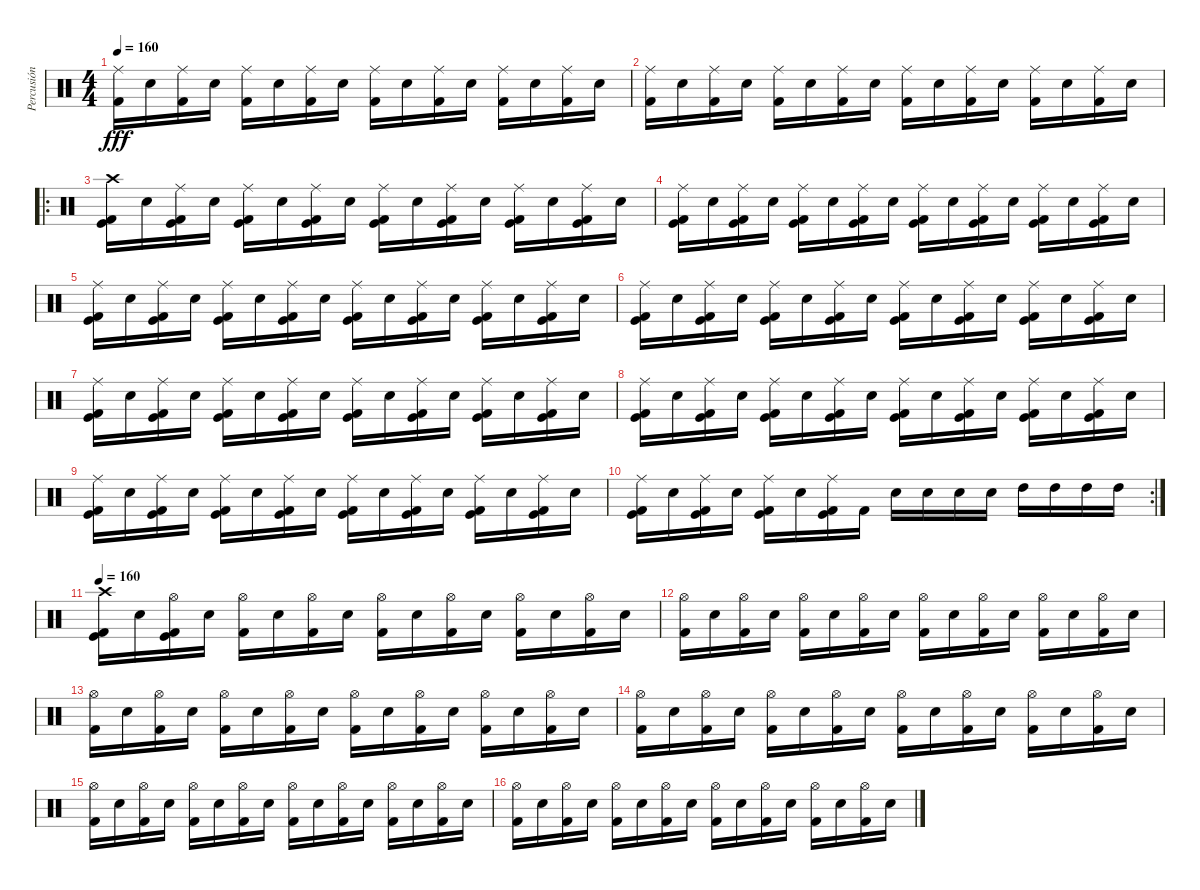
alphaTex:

\track ("Percusión" "Percusión") {instrument percussion}
\staff {score}
\articulation defaults
\ts (4 4)
\tempo 160
\clef neutral
\ks c
("Ride (middle)" "Kick (hit) 2").16{dy fff} "Electric Snare (hit)".16 ("Ride (middle)" "Kick (hit) 2").16 "Electric Snare (hit)".16 ("Ride (middle)" "Kick (hit) 2").16 "Electric Snare (hit)".16 ("Ride (middle)" "Kick (hit) 2").16 "Electric Snare (hit)".16 ("Ride (middle)" "Kick (hit) 2").16 "Electric Snare (hit)".16 ("Ride (middle)" "Kick (hit) 2").16 "Electric Snare (hit)".16 ("Ride (middle)" "Kick (hit) 2").16 "Electric Snare (hit)".16 ("Ride (middle)" "Kick (hit) 2").16 "Electric Snare (hit)".16 |
("Ride (middle)" "Kick (hit) 2").16 "Electric Snare (hit)".16 ("Ride (middle)" "Kick (hit) 2").16 "Electric Snare (hit)".16 ("Ride (middle)" "Kick (hit) 2").16 "Electric Snare (hit)".16 ("Ride (middle)" "Kick (hit) 2").16 "Electric Snare (hit)".16 ("Ride (middle)" "Kick (hit) 2").16 "Electric Snare (hit)".16 ("Ride (middle)" "Kick (hit) 2").16 "Electric Snare (hit)".16 ("Ride (middle)" "Kick (hit) 2").16 "Electric Snare (hit)".16 ("Ride (middle)" "Kick (hit) 2").16 "Electric Snare (hit)".16 |
\ro
("Crash high (hit)" "Kick (hit) 2" "Kick (hit)").16 "Electric Snare (hit)".16 ("Ride (middle)" "Kick (hit) 2" "Kick (hit)").16 "Electric Snare (hit)".16 ("Ride (middle)" "Kick (hit) 2" "Kick (hit)").16 "Electric Snare (hit)".16 ("Ride (middle)" "Kick (hit) 2" "Kick (hit)").16 "Electric Snare (hit)".16 ("Ride (middle)" "Kick (hit) 2" "Kick (hit)").16 "Electric Snare (hit)".16 ("Ride (middle)" "Kick (hit) 2" "Kick (hit)").16 "Electric Snare (hit)".16 ("Ride (middle)" "Kick (hit) 2" "Kick (hit)").16 "Electric Snare (hit)".16 ("Ride (middle)" "Kick (hit) 2" "Kick (hit)").16 "Electric Snare (hit)".16 |
("Ride (middle)" "Kick (hit) 2" "Kick (hit)").16 "Electric Snare (hit)".16 ("Ride (middle)" "Kick (hit) 2" "Kick (hit)").16 "Electric Snare (hit)".16 ("Ride (middle)" "Kick (hit) 2" "Kick (hit)").16 "Electric Snare (hit)".16 ("Ride (middle)" "Kick (hit) 2" "Kick (hit)").16 "Electric Snare (hit)".16 ("Ride (middle)" "Kick (hit) 2" "Kick (hit)").16 "Electric Snare (hit)".16 ("Ride (middle)" "Kick (hit) 2" "Kick (hit)").16 "Electric Snare (hit)".16 ("Ride (middle)" "Kick (hit) 2" "Kick (hit)").16 "Electric Snare (hit)".16 ("Ride (middle)" "Kick (hit) 2" "Kick (hit)").16 "Electric Snare (hit)".16 |
("Ride (middle)" "Kick (hit) 2" "Kick (hit)").16 "Electric Snare (hit)".16 ("Ride (middle)" "Kick (hit) 2" "Kick (hit)").16 "Electric Snare (hit)".16 ("Ride (middle)" "Kick (hit) 2" "Kick (hit)").16 "Electric Snare (hit)".16 ("Ride (middle)" "Kick (hit) 2" "Kick (hit)").16 "Electric Snare (hit)".16 ("Ride (middle)" "Kick (hit) 2" "Kick (hit)").16 "Electric Snare (hit)".16 ("Ride (middle)" "Kick (hit) 2" "Kick (hit)").16 "Electric Snare (hit)".16 ("Ride (middle)" "Kick (hit) 2" "Kick (hit)").16 "Electric Snare (hit)".16 ("Ride (middle)" "Kick (hit) 2" "Kick (hit)").16 "Electric Snare (hit)".16 |
("Ride (middle)" "Kick (hit) 2" "Kick (hit)").16 "Electric Snare (hit)".16 ("Ride (middle)" "Kick (hit) 2" "Kick (hit)").16 "Electric Snare (hit)".16 ("Ride (middle)" "Kick (hit) 2" "Kick (hit)").16 "Electric Snare (hit)".16 ("Ride (middle)" "Kick (hit) 2" "Kick (hit)").16 "Electric Snare (hit)".16 ("Ride (middle)" "Kick (hit) 2" "Kick (hit)").16 "Electric Snare (hit)".16 ("Ride (middle)" "Kick (hit) 2" "Kick (hit)").16 "Electric Snare (hit)".16 ("Ride (middle)" "Kick (hit) 2" "Kick (hit)").16 "Electric Snare (hit)".16 ("Ride (middle)" "Kick (hit) 2" "Kick (hit)").16 "Electric Snare (hit)".16 |
("Ride (middle)" "Kick (hit) 2" "Kick (hit)").16 "Electric Snare (hit)".16 ("Ride (middle)" "Kick (hit) 2" "Kick (hit)").16 "Electric Snare (hit)".16 ("Ride (middle)" "Kick (hit) 2" "Kick (hit)").16 "Electric Snare (hit)".16 ("Ride (middle)" "Kick (hit) 2" "Kick (hit)").16 "Electric Snare (hit)".16 ("Ride (middle)" "Kick (hit) 2" "Kick (hit)").16 "Electric Snare (hit)".16 ("Ride (middle)" "Kick (hit) 2" "Kick (hit)").16 "Electric Snare (hit)".16 ("Ride (middle)" "Kick (hit) 2" "Kick (hit)").16 "Electric Snare (hit)".16 ("Ride (middle)" "Kick (hit) 2" "Kick (hit)").16 "Electric Snare (hit)".16 |
("Ride (middle)" "Kick (hit) 2" "Kick (hit)").16 "Electric Snare (hit)".16 ("Ride (middle)" "Kick (hit) 2" "Kick (hit)").16 "Electric Snare (hit)".16 ("Ride (middle)" "Kick (hit) 2" "Kick (hit)").16 "Electric Snare (hit)".16 ("Ride (middle)" "Kick (hit) 2" "Kick (hit)").16 "Electric Snare (hit)".16 ("Ride (middle)" "Kick (hit) 2" "Kick (hit)").16 "Electric Snare (hit)".16 ("Ride (middle)" "Kick (hit) 2" "Kick (hit)").16 "Electric Snare (hit)".16 ("Ride (middle)" "Kick (hit) 2" "Kick (hit)").16 "Electric Snare (hit)".16 ("Ride (middle)" "Kick (hit) 2" "Kick (hit)").16 "Electric Snare (hit)".16 |
("Ride (middle)" "Kick (hit) 2" "Kick (hit)").16 "Electric Snare (hit)".16 ("Ride (middle)" "Kick (hit) 2" "Kick (hit)").16 "Electric Snare (hit)".16 ("Ride (middle)" "Kick (hit) 2" "Kick (hit)").16 "Electric Snare (hit)".16 ("Ride (middle)" "Kick (hit) 2" "Kick (hit)").16 "Electric Snare (hit)".16 ("Ride (middle)" "Kick (hit) 2" "Kick (hit)").16 "Electric Snare (hit)".16 ("Ride (middle)" "Kick (hit) 2" "Kick (hit)").16 "Electric Snare (hit)".16 ("Ride (middle)" "Kick (hit) 2" "Kick (hit)").16 "Electric Snare (hit)".16 ("Ride (middle)" "Kick (hit) 2" "Kick (hit)").16 "Electric Snare (hit)".16 |
\rc 2
("Ride (middle)" "Kick (hit) 2" "Kick (hit)").16 "Electric Snare (hit)".16 ("Ride (middle)" "Kick (hit) 2" "Kick (hit)").16 "Electric Snare (hit)".16 ("Ride (middle)" "Kick (hit) 2" "Kick (hit)").16 "Electric Snare (hit)".16 ("Ride (middle)" "Kick (hit) 2" "Kick (hit)").16 "Kick (hit) 2".16 "Electric Snare (hit)".16 "Electric Snare (hit)".16 "Electric Snare (hit)".16 "Electric Snare (hit)".16 "High Tom (hit)".16 "High Tom (hit)".16 "High Tom (hit)".16 "High Tom (hit)".16 |
\tempo 145
\tempo 160
("Crash high (hit)" "Kick (hit) 2" "Kick (hit)").16 "Electric Snare (hit)".16 ("Hi-Hat (open)" "Kick (hit) 2" "Kick (hit)").16 "Electric Snare (hit)".16 ("Hi-Hat (open)" "Kick (hit) 2").16 "Electric Snare (hit)".16 ("Hi-Hat (open)" "Kick (hit) 2").16 "Electric Snare (hit)".16 ("Hi-Hat (open)" "Kick (hit) 2").16 "Electric Snare (hit)".16 ("Hi-Hat (open)" "Kick (hit) 2").16 "Electric Snare (hit)".16 ("Hi-Hat (open)" "Kick (hit) 2").16 "Electric Snare (hit)".16 ("Hi-Hat (open)" "Kick (hit) 2").16 "Electric Snare (hit)".16 |
("Hi-Hat (open)" "Kick (hit) 2").16 "Electric Snare (hit)".16 ("Hi-Hat (open)" "Kick (hit) 2").16 "Electric Snare (hit)".16 ("Hi-Hat (open)" "Kick (hit) 2").16 "Electric Snare (hit)".16 ("Hi-Hat (open)" "Kick (hit) 2").16 "Electric Snare (hit)".16 ("Hi-Hat (open)" "Kick (hit) 2").16 "Electric Snare (hit)".16 ("Hi-Hat (open)" "Kick (hit) 2").16 "Electric Snare (hit)".16 ("Hi-Hat (open)" "Kick (hit) 2").16 "Electric Snare (hit)".16 ("Hi-Hat (open)" "Kick (hit) 2").16 "Electric Snare (hit)".16 |
("Hi-Hat (open)" "Kick (hit) 2").16 "Electric Snare (hit)".16 ("Hi-Hat (open)" "Kick (hit) 2").16 "Electric Snare (hit)".16 ("Hi-Hat (open)" "Kick (hit) 2").16 "Electric Snare (hit)".16 ("Hi-Hat (open)" "Kick (hit) 2").16 "Electric Snare (hit)".16 ("Hi-Hat (open)" "Kick (hit) 2").16 "Electric Snare (hit)".16 ("Hi-Hat (open)" "Kick (hit) 2").16 "Electric Snare (hit)".16 ("Hi-Hat (open)" "Kick (hit) 2").16 "Electric Snare (hit)".16 ("Hi-Hat (open)" "Kick (hit) 2").16 "Electric Snare (hit)".16 |
("Hi-Hat (open)" "Kick (hit) 2").16 "Electric Snare (hit)".16 ("Hi-Hat (open)" "Kick (hit) 2").16 "Electric Snare (hit)".16 ("Hi-Hat (open)" "Kick (hit) 2").16 "Electric Snare (hit)".16 ("Hi-Hat (open)" "Kick (hit) 2").16 "Electric Snare (hit)".16 ("Hi-Hat (open)" "Kick (hit) 2").16 "Electric Snare (hit)".16 ("Hi-Hat (open)" "Kick (hit) 2").16 "Electric Snare (hit)".16 ("Hi-Hat (open)" "Kick (hit) 2").16 "Electric Snare (hit)".16 ("Hi-Hat (open)" "Kick (hit) 2").16 "Electric Snare (hit)".16 |
("Hi-Hat (open)" "Kick (hit) 2").16 "Electric Snare (hit)".16 ("Hi-Hat (open)" "Kick (hit) 2").16 "Electric Snare (hit)".16 ("Hi-Hat (open)" "Kick (hit) 2").16 "Electric Snare (hit)".16 ("Hi-Hat (open)" "Kick (hit) 2").16 "Electric Snare (hit)".16 ("Hi-Hat (open)" "Kick (hit) 2").16 "Electric Snare (hit)".16 ("Hi-Hat (open)" "Kick (hit) 2").16 "Electric Snare (hit)".16 ("Hi-Hat (open)" "Kick (hit) 2").16 "Electric Snare (hit)".16 ("Hi-Hat (open)" "Kick (hit) 2").16 "Electric Snare (hit)".16 |
("Hi-Hat (open)" "Kick (hit) 2").16 "Electric Snare (hit)".16 ("Hi-Hat (open)" "Kick (hit) 2").16 "Electric Snare (hit)".16 ("Hi-Hat (open)" "Kick (hit) 2").16 "Electric Snare (hit)".16 ("Hi-Hat (open)" "Kick (hit) 2").16 "Electric Snare (hit)".16 ("Hi-Hat (open)" "Kick (hit) 2").16 "Electric Snare (hit)".16 ("Hi-Hat (open)" "Kick (hit) 2").16 "Electric Snare (hit)".16 ("Hi-Hat (open)" "Kick (hit) 2").16 "Electric Snare (hit)".16 ("Hi-Hat (open)" "Kick (hit) 2").16 "Electric Snare (hit)".16
